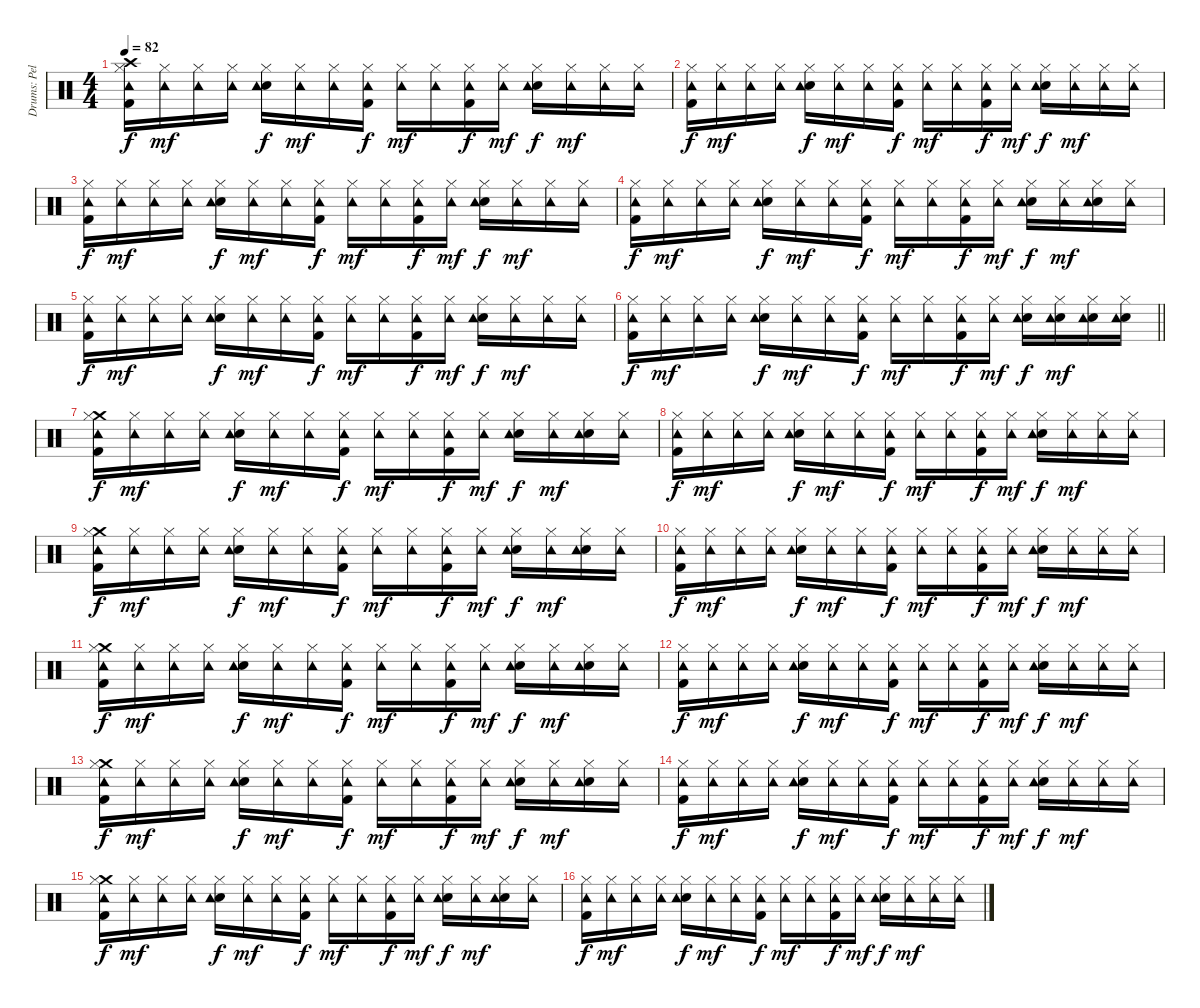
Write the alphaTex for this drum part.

\track ("Drums: Pelle Alsing" "Drums: Pel") {instrument percussion}
\staff {score}
\articulation defaults
\ts (4 4)
\tempo 82
\clef neutral
\ks c
("Crash high (hit)" "Hi-Hat (closed)" "Tambourine (hit)" "Kick (hit) 2").16{dy f} ("Hi-Hat (closed)" "Tambourine (hit)").16{dy mf} ("Hi-Hat (closed)" "Tambourine (hit)").16 ("Hi-Hat (closed)" "Tambourine (hit)").16 ("Hi-Hat (closed)" "Snare (hit) 2" "Tambourine (hit)").16{dy f} ("Hi-Hat (closed)" "Tambourine (hit)").16{dy mf} ("Hi-Hat (closed)" "Tambourine (hit)").16 ("Hi-Hat (closed)" "Tambourine (hit)" "Kick (hit) 2").16{dy f} ("Hi-Hat (closed)" "Tambourine (hit)").16{dy mf} ("Hi-Hat (closed)" "Tambourine (hit)").16 ("Hi-Hat (closed)" "Tambourine (hit)" "Kick (hit) 2").16{dy f} ("Hi-Hat (closed)" "Tambourine (hit)").16{dy mf} ("Hi-Hat (closed)" "Snare (hit) 2" "Tambourine (hit)").16{dy f} ("Hi-Hat (closed)" "Tambourine (hit)").16{dy mf} ("Hi-Hat (closed)" "Tambourine (hit)").16 ("Hi-Hat (closed)" "Tambourine (hit)").16 |
("Hi-Hat (closed)" "Tambourine (hit)" "Kick (hit) 2").16{dy f} ("Hi-Hat (closed)" "Tambourine (hit)").16{dy mf} ("Hi-Hat (closed)" "Tambourine (hit)").16 ("Hi-Hat (closed)" "Tambourine (hit)").16 ("Hi-Hat (closed)" "Snare (hit) 2" "Tambourine (hit)").16{dy f} ("Hi-Hat (closed)" "Tambourine (hit)").16{dy mf} ("Hi-Hat (closed)" "Tambourine (hit)").16 ("Hi-Hat (closed)" "Tambourine (hit)" "Kick (hit) 2").16{dy f} ("Hi-Hat (closed)" "Tambourine (hit)").16{dy mf} ("Hi-Hat (closed)" "Tambourine (hit)").16 ("Hi-Hat (closed)" "Tambourine (hit)" "Kick (hit) 2").16{dy f} ("Hi-Hat (closed)" "Tambourine (hit)").16{dy mf} ("Hi-Hat (closed)" "Snare (hit) 2" "Tambourine (hit)").16{dy f} ("Hi-Hat (closed)" "Tambourine (hit)").16{dy mf} ("Hi-Hat (closed)" "Tambourine (hit)").16 ("Hi-Hat (closed)" "Tambourine (hit)").16 |
("Hi-Hat (closed)" "Tambourine (hit)" "Kick (hit) 2").16{dy f} ("Hi-Hat (closed)" "Tambourine (hit)").16{dy mf} ("Hi-Hat (closed)" "Tambourine (hit)").16 ("Hi-Hat (closed)" "Tambourine (hit)").16 ("Hi-Hat (closed)" "Snare (hit) 2" "Tambourine (hit)").16{dy f} ("Hi-Hat (closed)" "Tambourine (hit)").16{dy mf} ("Hi-Hat (closed)" "Tambourine (hit)").16 ("Hi-Hat (closed)" "Tambourine (hit)" "Kick (hit) 2").16{dy f} ("Hi-Hat (closed)" "Tambourine (hit)").16{dy mf} ("Hi-Hat (closed)" "Tambourine (hit)").16 ("Hi-Hat (closed)" "Tambourine (hit)" "Kick (hit) 2").16{dy f} ("Hi-Hat (closed)" "Tambourine (hit)").16{dy mf} ("Hi-Hat (closed)" "Snare (hit) 2" "Tambourine (hit)").16{dy f} ("Hi-Hat (closed)" "Tambourine (hit)").16{dy mf} ("Hi-Hat (closed)" "Tambourine (hit)").16 ("Hi-Hat (closed)" "Tambourine (hit)").16 |
("Hi-Hat (closed)" "Tambourine (hit)" "Kick (hit) 2").16{dy f} ("Hi-Hat (closed)" "Tambourine (hit)").16{dy mf} ("Hi-Hat (closed)" "Tambourine (hit)").16 ("Hi-Hat (closed)" "Tambourine (hit)").16 ("Hi-Hat (closed)" "Snare (hit) 2" "Tambourine (hit)").16{dy f} ("Hi-Hat (closed)" "Tambourine (hit)").16{dy mf} ("Hi-Hat (closed)" "Tambourine (hit)").16 ("Hi-Hat (closed)" "Tambourine (hit)" "Kick (hit) 2").16{dy f} ("Hi-Hat (closed)" "Tambourine (hit)").16{dy mf} ("Hi-Hat (closed)" "Tambourine (hit)").16 ("Hi-Hat (closed)" "Tambourine (hit)" "Kick (hit) 2").16{dy f} ("Hi-Hat (closed)" "Tambourine (hit)").16{dy mf} ("Hi-Hat (closed)" "Snare (hit) 2" "Tambourine (hit)").16{dy f} ("Hi-Hat (closed)" "Tambourine (hit)").16{dy mf} ("Hi-Hat (closed)" "Snare (hit) 2" "Tambourine (hit)").16 ("Hi-Hat (closed)" "Tambourine (hit)").16 |
("Hi-Hat (closed)" "Tambourine (hit)" "Kick (hit) 2").16{dy f} ("Hi-Hat (closed)" "Tambourine (hit)").16{dy mf} ("Hi-Hat (closed)" "Tambourine (hit)").16 ("Hi-Hat (closed)" "Tambourine (hit)").16 ("Hi-Hat (closed)" "Snare (hit) 2" "Tambourine (hit)").16{dy f} ("Hi-Hat (closed)" "Tambourine (hit)").16{dy mf} ("Hi-Hat (closed)" "Tambourine (hit)").16 ("Hi-Hat (closed)" "Tambourine (hit)" "Kick (hit) 2").16{dy f} ("Hi-Hat (closed)" "Tambourine (hit)").16{dy mf} ("Hi-Hat (closed)" "Tambourine (hit)").16 ("Hi-Hat (closed)" "Tambourine (hit)" "Kick (hit) 2").16{dy f} ("Hi-Hat (closed)" "Tambourine (hit)").16{dy mf} ("Hi-Hat (closed)" "Snare (hit) 2" "Tambourine (hit)").16{dy f} ("Hi-Hat (closed)" "Tambourine (hit)").16{dy mf} ("Hi-Hat (closed)" "Tambourine (hit)").16 ("Hi-Hat (closed)" "Tambourine (hit)").16 |
\barLineRight lightlight
("Hi-Hat (closed)" "Tambourine (hit)" "Kick (hit) 2").16{dy f} ("Hi-Hat (closed)" "Tambourine (hit)").16{dy mf} ("Hi-Hat (closed)" "Tambourine (hit)").16 ("Hi-Hat (closed)" "Tambourine (hit)").16 ("Hi-Hat (closed)" "Snare (hit) 2" "Tambourine (hit)").16{dy f} ("Hi-Hat (closed)" "Tambourine (hit)").16{dy mf} ("Hi-Hat (closed)" "Tambourine (hit)").16 ("Hi-Hat (closed)" "Tambourine (hit)" "Kick (hit) 2").16{dy f} ("Hi-Hat (closed)" "Tambourine (hit)").16{dy mf} ("Hi-Hat (closed)" "Tambourine (hit)").16 ("Hi-Hat (closed)" "Tambourine (hit)" "Kick (hit) 2").16{dy f} ("Hi-Hat (closed)" "Tambourine (hit)").16{dy mf} ("Hi-Hat (closed)" "Snare (hit) 2" "Tambourine (hit)").16{dy f} ("Hi-Hat (closed)" "Snare (hit) 2" "Tambourine (hit)").16{dy mf} ("Hi-Hat (closed)" "Snare (hit) 2" "Tambourine (hit)").16 ("Hi-Hat (closed)" "Snare (hit) 2" "Tambourine (hit)").16 |
("Crash medium (hit)" "Hi-Hat (closed)" "Tambourine (hit)" "Kick (hit) 2").16{dy f} ("Hi-Hat (closed)" "Tambourine (hit)").16{dy mf} ("Hi-Hat (closed)" "Tambourine (hit)").16 ("Hi-Hat (closed)" "Tambourine (hit)").16 ("Hi-Hat (closed)" "Snare (hit) 2" "Tambourine (hit)").16{dy f} ("Hi-Hat (closed)" "Tambourine (hit)").16{dy mf} ("Hi-Hat (closed)" "Tambourine (hit)").16 ("Hi-Hat (closed)" "Tambourine (hit)" "Kick (hit) 2").16{dy f} ("Hi-Hat (closed)" "Tambourine (hit)").16{dy mf} ("Hi-Hat (closed)" "Tambourine (hit)").16 ("Hi-Hat (closed)" "Tambourine (hit)" "Kick (hit) 2").16{dy f} ("Hi-Hat (closed)" "Tambourine (hit)").16{dy mf} ("Hi-Hat (closed)" "Snare (hit) 2" "Tambourine (hit)").16{dy f} ("Hi-Hat (closed)" "Tambourine (hit)").16{dy mf} ("Hi-Hat (closed)" "Snare (hit) 2" "Tambourine (hit)").16 ("Hi-Hat (closed)" "Tambourine (hit)").16 |
("Hi-Hat (closed)" "Tambourine (hit)" "Kick (hit) 2").16{dy f} ("Hi-Hat (closed)" "Tambourine (hit)").16{dy mf} ("Hi-Hat (closed)" "Tambourine (hit)").16 ("Hi-Hat (closed)" "Tambourine (hit)").16 ("Hi-Hat (closed)" "Snare (hit) 2" "Tambourine (hit)").16{dy f} ("Hi-Hat (closed)" "Tambourine (hit)").16{dy mf} ("Hi-Hat (closed)" "Tambourine (hit)").16 ("Hi-Hat (closed)" "Tambourine (hit)" "Kick (hit) 2").16{dy f} ("Hi-Hat (closed)" "Tambourine (hit)").16{dy mf} ("Hi-Hat (closed)" "Tambourine (hit)").16 ("Hi-Hat (closed)" "Tambourine (hit)" "Kick (hit) 2").16{dy f} ("Hi-Hat (closed)" "Tambourine (hit)").16{dy mf} ("Hi-Hat (closed)" "Snare (hit) 2" "Tambourine (hit)").16{dy f} ("Hi-Hat (closed)" "Tambourine (hit)").16{dy mf} ("Hi-Hat (closed)" "Tambourine (hit)").16 ("Hi-Hat (closed)" "Tambourine (hit)").16 |
("Crash medium (hit)" "Hi-Hat (closed)" "Tambourine (hit)" "Kick (hit) 2").16{dy f} ("Hi-Hat (closed)" "Tambourine (hit)").16{dy mf} ("Hi-Hat (closed)" "Tambourine (hit)").16 ("Hi-Hat (closed)" "Tambourine (hit)").16 ("Hi-Hat (closed)" "Snare (hit) 2" "Tambourine (hit)").16{dy f} ("Hi-Hat (closed)" "Tambourine (hit)").16{dy mf} ("Hi-Hat (closed)" "Tambourine (hit)").16 ("Hi-Hat (closed)" "Tambourine (hit)" "Kick (hit) 2").16{dy f} ("Hi-Hat (closed)" "Tambourine (hit)").16{dy mf} ("Hi-Hat (closed)" "Tambourine (hit)").16 ("Hi-Hat (closed)" "Tambourine (hit)" "Kick (hit) 2").16{dy f} ("Hi-Hat (closed)" "Tambourine (hit)").16{dy mf} ("Hi-Hat (closed)" "Snare (hit) 2" "Tambourine (hit)").16{dy f} ("Hi-Hat (closed)" "Tambourine (hit)").16{dy mf} ("Hi-Hat (closed)" "Snare (hit) 2" "Tambourine (hit)").16 ("Hi-Hat (closed)" "Tambourine (hit)").16 |
("Hi-Hat (closed)" "Tambourine (hit)" "Kick (hit) 2").16{dy f} ("Hi-Hat (closed)" "Tambourine (hit)").16{dy mf} ("Hi-Hat (closed)" "Tambourine (hit)").16 ("Hi-Hat (closed)" "Tambourine (hit)").16 ("Hi-Hat (closed)" "Snare (hit) 2" "Tambourine (hit)").16{dy f} ("Hi-Hat (closed)" "Tambourine (hit)").16{dy mf} ("Hi-Hat (closed)" "Tambourine (hit)").16 ("Hi-Hat (closed)" "Tambourine (hit)" "Kick (hit) 2").16{dy f} ("Hi-Hat (closed)" "Tambourine (hit)").16{dy mf} ("Hi-Hat (closed)" "Tambourine (hit)").16 ("Hi-Hat (closed)" "Tambourine (hit)" "Kick (hit) 2").16{dy f} ("Hi-Hat (closed)" "Tambourine (hit)").16{dy mf} ("Hi-Hat (closed)" "Snare (hit) 2" "Tambourine (hit)").16{dy f} ("Hi-Hat (closed)" "Tambourine (hit)").16{dy mf} ("Hi-Hat (closed)" "Tambourine (hit)").16 ("Hi-Hat (closed)" "Tambourine (hit)").16 |
("Crash medium (hit)" "Hi-Hat (closed)" "Tambourine (hit)" "Kick (hit) 2").16{dy f} ("Hi-Hat (closed)" "Tambourine (hit)").16{dy mf} ("Hi-Hat (closed)" "Tambourine (hit)").16 ("Hi-Hat (closed)" "Tambourine (hit)").16 ("Hi-Hat (closed)" "Snare (hit) 2" "Tambourine (hit)").16{dy f} ("Hi-Hat (closed)" "Tambourine (hit)").16{dy mf} ("Hi-Hat (closed)" "Tambourine (hit)").16 ("Hi-Hat (closed)" "Tambourine (hit)" "Kick (hit) 2").16{dy f} ("Hi-Hat (closed)" "Tambourine (hit)").16{dy mf} ("Hi-Hat (closed)" "Tambourine (hit)").16 ("Hi-Hat (closed)" "Tambourine (hit)" "Kick (hit) 2").16{dy f} ("Hi-Hat (closed)" "Tambourine (hit)").16{dy mf} ("Hi-Hat (closed)" "Snare (hit) 2" "Tambourine (hit)").16{dy f} ("Hi-Hat (closed)" "Tambourine (hit)").16{dy mf} ("Hi-Hat (closed)" "Snare (hit) 2" "Tambourine (hit)").16 ("Hi-Hat (closed)" "Tambourine (hit)").16 |
("Hi-Hat (closed)" "Tambourine (hit)" "Kick (hit) 2").16{dy f} ("Hi-Hat (closed)" "Tambourine (hit)").16{dy mf} ("Hi-Hat (closed)" "Tambourine (hit)").16 ("Hi-Hat (closed)" "Tambourine (hit)").16 ("Hi-Hat (closed)" "Snare (hit) 2" "Tambourine (hit)").16{dy f} ("Hi-Hat (closed)" "Tambourine (hit)").16{dy mf} ("Hi-Hat (closed)" "Tambourine (hit)").16 ("Hi-Hat (closed)" "Tambourine (hit)" "Kick (hit) 2").16{dy f} ("Hi-Hat (closed)" "Tambourine (hit)").16{dy mf} ("Hi-Hat (closed)" "Tambourine (hit)").16 ("Hi-Hat (closed)" "Tambourine (hit)" "Kick (hit) 2").16{dy f} ("Hi-Hat (closed)" "Tambourine (hit)").16{dy mf} ("Hi-Hat (closed)" "Snare (hit) 2" "Tambourine (hit)").16{dy f} ("Hi-Hat (closed)" "Tambourine (hit)").16{dy mf} ("Hi-Hat (closed)" "Tambourine (hit)").16 ("Hi-Hat (closed)" "Tambourine (hit)").16 |
("Crash medium (hit)" "Hi-Hat (closed)" "Tambourine (hit)" "Kick (hit) 2").16{dy f} ("Hi-Hat (closed)" "Tambourine (hit)").16{dy mf} ("Hi-Hat (closed)" "Tambourine (hit)").16 ("Hi-Hat (closed)" "Tambourine (hit)").16 ("Hi-Hat (closed)" "Snare (hit) 2" "Tambourine (hit)").16{dy f} ("Hi-Hat (closed)" "Tambourine (hit)").16{dy mf} ("Hi-Hat (closed)" "Tambourine (hit)").16 ("Hi-Hat (closed)" "Tambourine (hit)" "Kick (hit) 2").16{dy f} ("Hi-Hat (closed)" "Tambourine (hit)").16{dy mf} ("Hi-Hat (closed)" "Tambourine (hit)").16 ("Hi-Hat (closed)" "Tambourine (hit)" "Kick (hit) 2").16{dy f} ("Hi-Hat (closed)" "Tambourine (hit)").16{dy mf} ("Hi-Hat (closed)" "Snare (hit) 2" "Tambourine (hit)").16{dy f} ("Hi-Hat (closed)" "Tambourine (hit)").16{dy mf} ("Hi-Hat (closed)" "Snare (hit) 2" "Tambourine (hit)").16 ("Hi-Hat (closed)" "Tambourine (hit)").16 |
("Hi-Hat (closed)" "Tambourine (hit)" "Kick (hit) 2").16{dy f} ("Hi-Hat (closed)" "Tambourine (hit)").16{dy mf} ("Hi-Hat (closed)" "Tambourine (hit)").16 ("Hi-Hat (closed)" "Tambourine (hit)").16 ("Hi-Hat (closed)" "Snare (hit) 2" "Tambourine (hit)").16{dy f} ("Hi-Hat (closed)" "Tambourine (hit)").16{dy mf} ("Hi-Hat (closed)" "Tambourine (hit)").16 ("Hi-Hat (closed)" "Tambourine (hit)" "Kick (hit) 2").16{dy f} ("Hi-Hat (closed)" "Tambourine (hit)").16{dy mf} ("Hi-Hat (closed)" "Tambourine (hit)").16 ("Hi-Hat (closed)" "Tambourine (hit)" "Kick (hit) 2").16{dy f} ("Hi-Hat (closed)" "Tambourine (hit)").16{dy mf} ("Hi-Hat (closed)" "Snare (hit) 2" "Tambourine (hit)").16{dy f} ("Hi-Hat (closed)" "Tambourine (hit)").16{dy mf} ("Hi-Hat (closed)" "Tambourine (hit)").16 ("Hi-Hat (closed)" "Tambourine (hit)").16 |
("Crash medium (hit)" "Hi-Hat (closed)" "Tambourine (hit)" "Kick (hit) 2").16{dy f} ("Hi-Hat (closed)" "Tambourine (hit)").16{dy mf} ("Hi-Hat (closed)" "Tambourine (hit)").16 ("Hi-Hat (closed)" "Tambourine (hit)").16 ("Hi-Hat (closed)" "Snare (hit) 2" "Tambourine (hit)").16{dy f} ("Hi-Hat (closed)" "Tambourine (hit)").16{dy mf} ("Hi-Hat (closed)" "Tambourine (hit)").16 ("Hi-Hat (closed)" "Tambourine (hit)" "Kick (hit) 2").16{dy f} ("Hi-Hat (closed)" "Tambourine (hit)").16{dy mf} ("Hi-Hat (closed)" "Tambourine (hit)").16 ("Hi-Hat (closed)" "Tambourine (hit)" "Kick (hit) 2").16{dy f} ("Hi-Hat (closed)" "Tambourine (hit)").16{dy mf} ("Hi-Hat (closed)" "Snare (hit) 2" "Tambourine (hit)").16{dy f} ("Hi-Hat (closed)" "Tambourine (hit)").16{dy mf} ("Hi-Hat (closed)" "Snare (hit) 2" "Tambourine (hit)").16 ("Hi-Hat (closed)" "Tambourine (hit)").16 |
("Hi-Hat (closed)" "Tambourine (hit)" "Kick (hit) 2").16{dy f} ("Hi-Hat (closed)" "Tambourine (hit)").16{dy mf} ("Hi-Hat (closed)" "Tambourine (hit)").16 ("Hi-Hat (closed)" "Tambourine (hit)").16 ("Hi-Hat (closed)" "Snare (hit) 2" "Tambourine (hit)").16{dy f} ("Hi-Hat (closed)" "Tambourine (hit)").16{dy mf} ("Hi-Hat (closed)" "Tambourine (hit)").16 ("Hi-Hat (closed)" "Tambourine (hit)" "Kick (hit) 2").16{dy f} ("Hi-Hat (closed)" "Tambourine (hit)").16{dy mf} ("Hi-Hat (closed)" "Tambourine (hit)").16 ("Hi-Hat (closed)" "Tambourine (hit)" "Kick (hit) 2").16{dy f} ("Hi-Hat (closed)" "Tambourine (hit)").16{dy mf} ("Hi-Hat (closed)" "Snare (hit) 2" "Tambourine (hit)").16{dy f} ("Hi-Hat (closed)" "Tambourine (hit)").16{dy mf} ("Hi-Hat (closed)" "Tambourine (hit)").16 ("Hi-Hat (closed)" "Tambourine (hit)").16
